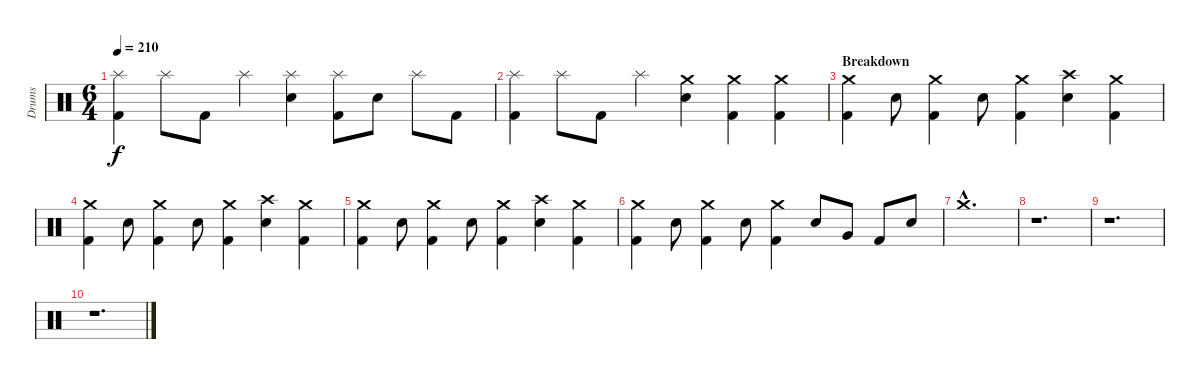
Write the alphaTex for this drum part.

\track ("Drums" "Drums") {instrument percussion}
\staff {score}
\articulation defaults
\ts (6 4)
\tempo 210
\clef neutral
\ks c
("Splash (hit)" "Kick (hit) 2").4{dy f} "Splash (hit)".8 "Kick (hit) 2".8 "Splash (hit)".4 ("Splash (hit)" "Electric Snare (hit)").4 ("Splash (hit)" "Kick (hit) 2").8 "Electric Snare (hit)".8 "Splash (hit)".8 "Kick (hit) 2".8 |
("Splash (hit)" "Kick (hit) 2").4 "Splash (hit)".8 "Kick (hit) 2".8 "Splash (hit)".4 ("Crash medium (hit)" "Electric Snare (hit)").4 ("Crash medium (hit)" "Kick (hit) 2").4 ("Crash medium (hit)" "Kick (hit) 2").4 |
\section ("" "Breakdown")
("Crash medium (hit)" "Kick (hit) 2").4 "Electric Snare (hit)".8 ("Crash medium (hit)" "Kick (hit) 2").4 "Electric Snare (hit)".8 ("Crash medium (hit)" "Kick (hit) 2").4 ("Crash high (hit)" "Electric Snare (hit)").4 ("Crash medium (hit)" "Kick (hit) 2").4 |
("Crash medium (hit)" "Kick (hit) 2").4 "Electric Snare (hit)".8 ("Crash medium (hit)" "Kick (hit) 2").4 "Electric Snare (hit)".8 ("Crash medium (hit)" "Kick (hit) 2").4 ("Crash high (hit)" "Electric Snare (hit)").4 ("Crash medium (hit)" "Kick (hit) 2").4 |
("Crash medium (hit)" "Kick (hit) 2").4 "Electric Snare (hit)".8 ("Crash medium (hit)" "Kick (hit) 2").4 "Electric Snare (hit)".8 ("Crash medium (hit)" "Kick (hit) 2").4 ("Crash high (hit)" "Electric Snare (hit)").4 ("Crash medium (hit)" "Kick (hit) 2").4 |
("Crash medium (hit)" "Kick (hit) 2").4 "Electric Snare (hit)".8 ("Crash medium (hit)" "Kick (hit) 2").4 "Electric Snare (hit)".8 ("Crash medium (hit)" "Kick (hit) 2").4 "Electric Snare (hit)".8 "Very Low Tom (hit)".8 "Kick (hit) 2".8 "Electric Snare (hit)".8 |
"Crash medium (hit)"{hac}.1{d} |
r.1{d} |
r.1{d} |
r.1{d}
